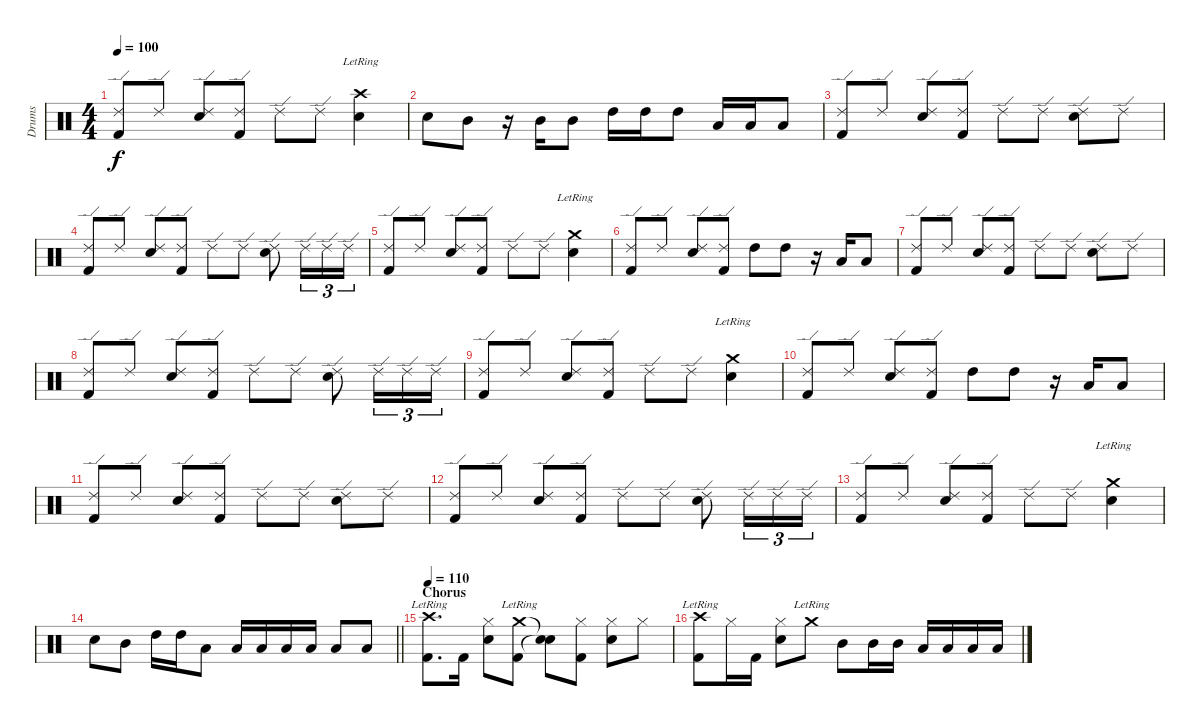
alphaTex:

\track ("Drums" "Drums") {instrument percussion}
\staff {score}
\articulation defaults
\ts (4 4)
\tempo 100
\clef neutral
\ks c
("Ride (edge) 2" "Kick (hit) 2").8{dy f} "Ride (edge) 2".8 ("Ride (edge) 2" "Snare (hit) 2").8 ("Ride (edge) 2" "Kick (hit) 2").8 "Ride (edge) 2".8 "Ride (edge) 2".8 ("Crash high (hit)"{lr} "Snare (hit) 2").4 |
"Snare (hit) 2".8 "Mid Tom (hit)".8 r.16 "Mid Tom (hit)".16 "Mid Tom (hit)".8 "High Tom (hit)".16 "High Tom (hit)".16 "High Tom (hit)".8 "Low Tom (hit)".16 "Low Tom (hit)".16 "Low Tom (hit)".8 |
("Ride (edge) 2" "Kick (hit) 2").8 "Ride (edge) 2".8 ("Ride (edge) 2" "Snare (hit) 2").8 ("Ride (edge) 2" "Kick (hit) 2").8 "Ride (edge) 2".8 "Ride (edge) 2".8 ("Ride (edge) 2" "Snare (hit) 2").8 "Ride (edge) 2".8 |
("Ride (edge) 2" "Kick (hit) 2").8 "Ride (edge) 2".8 ("Ride (edge) 2" "Snare (hit) 2").8 ("Ride (edge) 2" "Kick (hit) 2").8 "Ride (edge) 2".8 "Ride (edge) 2".8 ("Ride (edge) 2" "Snare (hit) 2").8 "Ride (edge) 2".16{tu (3 2)} "Ride (edge) 2".16{tu (3 2)} "Ride (edge) 2".16{tu (3 2)} |
("Ride (edge) 2" "Kick (hit) 2").8 "Ride (edge) 2".8 ("Ride (edge) 2" "Snare (hit) 2").8 ("Ride (edge) 2" "Kick (hit) 2").8 "Ride (edge) 2".8 "Ride (edge) 2".8 ("Crash medium (hit)"{lr} "Snare (hit) 2").4 |
("Ride (edge) 2" "Kick (hit) 2").8 "Ride (edge) 2".8 ("Ride (edge) 2" "Snare (hit) 2").8 ("Ride (edge) 2" "Kick (hit) 2").8 "High Tom (hit)".8 "High Tom (hit)".8 r.16 "Low Tom (hit)".16 "Low Tom (hit)".8 |
("Ride (edge) 2" "Kick (hit) 2").8 "Ride (edge) 2".8 ("Ride (edge) 2" "Snare (hit) 2").8 ("Ride (edge) 2" "Kick (hit) 2").8 "Ride (edge) 2".8 "Ride (edge) 2".8 ("Ride (edge) 2" "Snare (hit) 2").8 "Ride (edge) 2".8 |
("Ride (edge) 2" "Kick (hit) 2").8 "Ride (edge) 2".8 ("Ride (edge) 2" "Snare (hit) 2").8 ("Ride (edge) 2" "Kick (hit) 2").8 "Ride (edge) 2".8 "Ride (edge) 2".8 ("Ride (edge) 2" "Snare (hit) 2").8 "Ride (edge) 2".16{tu (3 2)} "Ride (edge) 2".16{tu (3 2)} "Ride (edge) 2".16{tu (3 2)} |
("Ride (edge) 2" "Kick (hit) 2").8 "Ride (edge) 2".8 ("Ride (edge) 2" "Snare (hit) 2").8 ("Ride (edge) 2" "Kick (hit) 2").8 "Ride (edge) 2".8 "Ride (edge) 2".8 ("Crash medium (hit)"{lr} "Snare (hit) 2").4 |
("Ride (edge) 2" "Kick (hit) 2").8 "Ride (edge) 2".8 ("Ride (edge) 2" "Snare (hit) 2").8 ("Ride (edge) 2" "Kick (hit) 2").8 "High Tom (hit)".8 "High Tom (hit)".8 r.16 "Low Tom (hit)".16 "Low Tom (hit)".8 |
("Ride (edge) 2" "Kick (hit) 2").8 "Ride (edge) 2".8 ("Ride (edge) 2" "Snare (hit) 2").8 ("Ride (edge) 2" "Kick (hit) 2").8 "Ride (edge) 2".8 "Ride (edge) 2".8 ("Ride (edge) 2" "Snare (hit) 2").8 "Ride (edge) 2".8 |
("Ride (edge) 2" "Kick (hit) 2").8 "Ride (edge) 2".8 ("Ride (edge) 2" "Snare (hit) 2").8 ("Ride (edge) 2" "Kick (hit) 2").8 "Ride (edge) 2".8 "Ride (edge) 2".8 ("Ride (edge) 2" "Snare (hit) 2").8 "Ride (edge) 2".16{tu (3 2)} "Ride (edge) 2".16{tu (3 2)} "Ride (edge) 2".16{tu (3 2)} |
("Ride (edge) 2" "Kick (hit) 2").8 "Ride (edge) 2".8 ("Ride (edge) 2" "Snare (hit) 2").8 ("Ride (edge) 2" "Kick (hit) 2").8 "Ride (edge) 2".8 "Ride (edge) 2".8 ("Crash medium (hit)"{lr} "Snare (hit) 2").4 |
\barLineRight lightlight "Snare (hit) 2".8 "Mid Tom (hit)".8 "High Tom (hit)".16 "High Tom (hit)".16 "Low Tom (hit)".8 "Low Tom (hit)".16 "Low Tom (hit)".16 "Low Tom (hit)".16 "Low Tom (hit)".16 "Low Tom (hit)".8 "Low Tom (hit)".8
|
\section ("" "Chorus")
\tempo 110
("Crash high (hit)"{lr} "Kick (hit) 2").8{d} "Kick (hit) 2".16 ("Hi-Hat (closed)" "Snare (hit) 2").8 ("Crash medium (hit)"{lr} "Kick (hit) 2").8 ("Snare (hit)"{t} "Snare (hit)"{t}).8 ("Hi-Hat (closed)" "Kick (hit) 2").8 ("Hi-Hat (closed)" "Snare (hit) 2").8 "Hi-Hat (closed)".8 |
("Crash high (hit)"{lr} "Kick (hit) 2").8 "Hi-Hat (closed)".16 "Kick (hit) 2".16 ("Hi-Hat (closed)" "Snare (hit) 2").8 "Crash medium (hit)"{lr}.8 "Mid Tom (hit)".8 "Mid Tom (hit)".16 "Mid Tom (hit)".16 "Low Tom (hit)".16 "Low Tom (hit)".16 "Low Tom (hit)".16 "Low Tom (hit)".16
